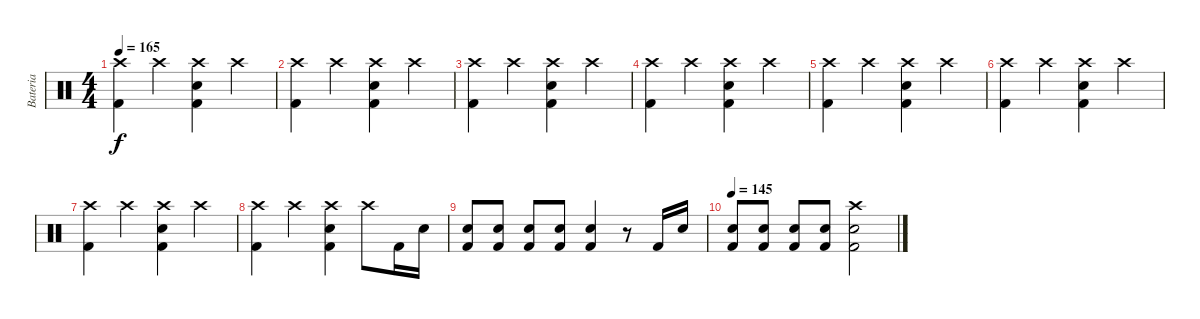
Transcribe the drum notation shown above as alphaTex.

\track ("Bateria" "Bateria") {instrument percussion}
\staff {score}
\articulation defaults
\ts (4 4)
\tempo 165
\clef neutral
\ks c
("Crash high (hit)" "Kick (hit) 2").4{dy f} "Crash high (hit)".4 ("Crash high (hit)" "Kick (hit) 2" "Snare (hit) 2").4 "Crash high (hit)".4 |
("Crash high (hit)" "Kick (hit) 2").4 "Crash high (hit)".4 ("Crash high (hit)" "Kick (hit) 2" "Snare (hit) 2").4 "Crash high (hit)".4 |
("Crash high (hit)" "Kick (hit) 2").4 "Crash high (hit)".4 ("Crash high (hit)" "Kick (hit) 2" "Snare (hit) 2").4 "Crash high (hit)".4 |
("Crash high (hit)" "Kick (hit) 2").4 "Crash high (hit)".4 ("Crash high (hit)" "Kick (hit) 2" "Snare (hit) 2").4 "Crash high (hit)".4 |
("Crash high (hit)" "Kick (hit) 2").4 "Crash high (hit)".4 ("Crash high (hit)" "Kick (hit) 2" "Snare (hit) 2").4 "Crash high (hit)".4 |
("Crash high (hit)" "Kick (hit) 2").4 "Crash high (hit)".4 ("Crash high (hit)" "Kick (hit) 2" "Snare (hit) 2").4 "Crash high (hit)".4 |
("Crash high (hit)" "Kick (hit) 2").4 "Crash high (hit)".4 ("Crash high (hit)" "Kick (hit) 2" "Snare (hit) 2").4 "Crash high (hit)".4 |
("Crash high (hit)" "Kick (hit) 2").4 "Crash high (hit)".4 ("Crash high (hit)" "Kick (hit) 2" "Snare (hit) 2").4 "Crash high (hit)".8 "Kick (hit) 2".16 "Snare (hit) 2".16 |
("Snare (hit) 2" "Kick (hit) 2").8 ("Snare (hit) 2" "Kick (hit) 2").8 ("Snare (hit) 2" "Kick (hit) 2").8 ("Snare (hit) 2" "Kick (hit) 2").8 ("Snare (hit) 2" "Kick (hit) 2").4 r.8 "Kick (hit) 2".16 "Snare (hit) 2".16 |
\tempo 145
("Snare (hit) 2" "Kick (hit) 2").8 ("Snare (hit) 2" "Kick (hit) 2").8 ("Snare (hit) 2" "Kick (hit) 2").8 ("Snare (hit) 2" "Kick (hit) 2").8 ("Crash high (hit)" "Snare (hit) 2" "Kick (hit) 2").2
